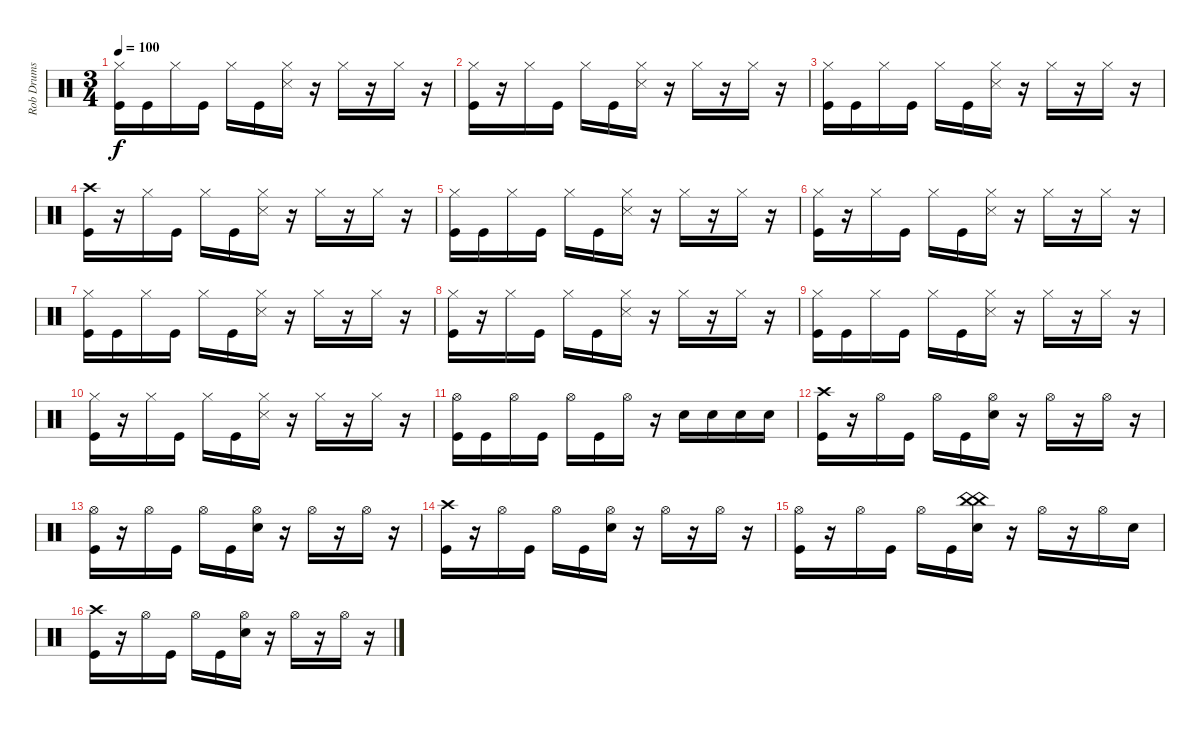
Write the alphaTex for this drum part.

\track ("Rob Drums" "Rob Drums") {instrument percussion}
\staff {score}
\articulation defaults
\ts (3 4)
\tempo 100
\clef neutral
\ks c
("Hi-Hat (closed)" "Kick (hit)").16{dy f} "Kick (hit)".16 "Hi-Hat (closed)".16 "Kick (hit)".16 "Hi-Hat (closed)".16 "Kick (hit)".16 ("Hi-Hat (closed)" "Snare (side stick) 3").16 r.16 "Hi-Hat (closed)".16 r.16 "Hi-Hat (closed)".16 r.16 |
("Hi-Hat (closed)" "Kick (hit)").16 r.16 "Hi-Hat (closed)".16 "Kick (hit)".16 "Hi-Hat (closed)".16 "Kick (hit)".16 ("Hi-Hat (closed)" "Snare (side stick) 3").16 r.16 "Hi-Hat (closed)".16 r.16 "Hi-Hat (closed)".16 r.16 |
("Hi-Hat (closed)" "Kick (hit)").16 "Kick (hit)".16 "Hi-Hat (closed)".16 "Kick (hit)".16 "Hi-Hat (closed)".16 "Kick (hit)".16 ("Hi-Hat (closed)" "Snare (side stick) 3").16 r.16 "Hi-Hat (closed)".16 r.16 "Hi-Hat (closed)".16 r.16 |
("Crash high (hit)" "Kick (hit)").16 r.16 "Hi-Hat (closed)".16 "Kick (hit)".16 "Hi-Hat (closed)".16 "Kick (hit)".16 ("Hi-Hat (closed)" "Snare (side stick) 3").16 r.16 "Hi-Hat (closed)".16 r.16 "Hi-Hat (closed)".16 r.16 |
("Hi-Hat (closed)" "Kick (hit)").16 "Kick (hit)".16 "Hi-Hat (closed)".16 "Kick (hit)".16 "Hi-Hat (closed)".16 "Kick (hit)".16 ("Hi-Hat (closed)" "Snare (side stick) 3").16 r.16 "Hi-Hat (closed)".16 r.16 "Hi-Hat (closed)".16 r.16 |
("Hi-Hat (closed)" "Kick (hit)").16 r.16 "Hi-Hat (closed)".16 "Kick (hit)".16 "Hi-Hat (closed)".16 "Kick (hit)".16 ("Hi-Hat (closed)" "Snare (side stick) 3").16 r.16 "Hi-Hat (closed)".16 r.16 "Hi-Hat (closed)".16 r.16 |
("Hi-Hat (closed)" "Kick (hit)").16 "Kick (hit)".16 "Hi-Hat (closed)".16 "Kick (hit)".16 "Hi-Hat (closed)".16 "Kick (hit)".16 ("Hi-Hat (closed)" "Snare (side stick) 3").16 r.16 "Hi-Hat (closed)".16 r.16 "Hi-Hat (closed)".16 r.16 |
("Hi-Hat (closed)" "Kick (hit)").16 r.16 "Hi-Hat (closed)".16 "Kick (hit)".16 "Hi-Hat (closed)".16 "Kick (hit)".16 ("Hi-Hat (closed)" "Snare (side stick) 3").16 r.16 "Hi-Hat (closed)".16 r.16 "Hi-Hat (closed)".16 r.16 |
("Hi-Hat (closed)" "Kick (hit)").16 "Kick (hit)".16 "Hi-Hat (closed)".16 "Kick (hit)".16 "Hi-Hat (closed)".16 "Kick (hit)".16 ("Hi-Hat (closed)" "Snare (side stick) 3").16 r.16 "Hi-Hat (closed)".16 r.16 "Hi-Hat (closed)".16 r.16 |
("Hi-Hat (closed)" "Kick (hit)").16 r.16 "Hi-Hat (closed)".16 "Kick (hit)".16 "Hi-Hat (closed)".16 "Kick (hit)".16 ("Hi-Hat (closed)" "Snare (side stick) 3").16 r.16 "Hi-Hat (closed)".16 r.16 "Hi-Hat (closed)".16 r.16 |
("Hi-Hat (open)" "Kick (hit)").16 "Kick (hit)".16 "Hi-Hat (open)".16 "Kick (hit)".16 "Hi-Hat (open)".16 "Kick (hit)".16 "Hi-Hat (open)".16 r.16 "Snare (hit) 2".16 "Snare (hit) 2".16 "Snare (hit) 2".16 "Snare (hit) 2".16 |
("Crash high (hit)" "Kick (hit)").16 r.16 "Hi-Hat (open)".16 "Kick (hit)".16 "Hi-Hat (open)".16 "Kick (hit)".16 ("Hi-Hat (open)" "Snare (hit) 2").16 r.16 "Hi-Hat (open)".16 r.16 "Hi-Hat (open)".16 r.16 |
("Hi-Hat (open)" "Kick (hit)").16 r.16 "Hi-Hat (open)".16 "Kick (hit)".16 "Hi-Hat (open)".16 "Kick (hit)".16 ("Hi-Hat (open)" "Snare (hit) 2").16 r.16 "Hi-Hat (open)".16 r.16 "Hi-Hat (open)".16 r.16 |
("Crash high (hit)" "Kick (hit)").16 r.16 "Hi-Hat (open)".16 "Kick (hit)".16 "Hi-Hat (open)".16 "Kick (hit)".16 ("Hi-Hat (open)" "Snare (hit) 2").16 r.16 "Hi-Hat (open)".16 r.16 "Hi-Hat (open)".16 r.16 |
("Hi-Hat (open)" "Kick (hit)").16 r.16 "Hi-Hat (open)".16 "Kick (hit)".16 "Hi-Hat (open)".16 "Kick (hit)".16 ("China (hit)" "China (hit)" "Snare (hit) 2").16 r.16 "Hi-Hat (open)".16 r.16 "Hi-Hat (open)".16 "Snare (hit) 2".16 |
("Crash high (hit)" "Kick (hit)").16 r.16 "Hi-Hat (open)".16 "Kick (hit)".16 "Hi-Hat (open)".16 "Kick (hit)".16 ("Hi-Hat (open)" "Snare (hit) 2").16 r.16 "Hi-Hat (open)".16 r.16 "Hi-Hat (open)".16 r.16
